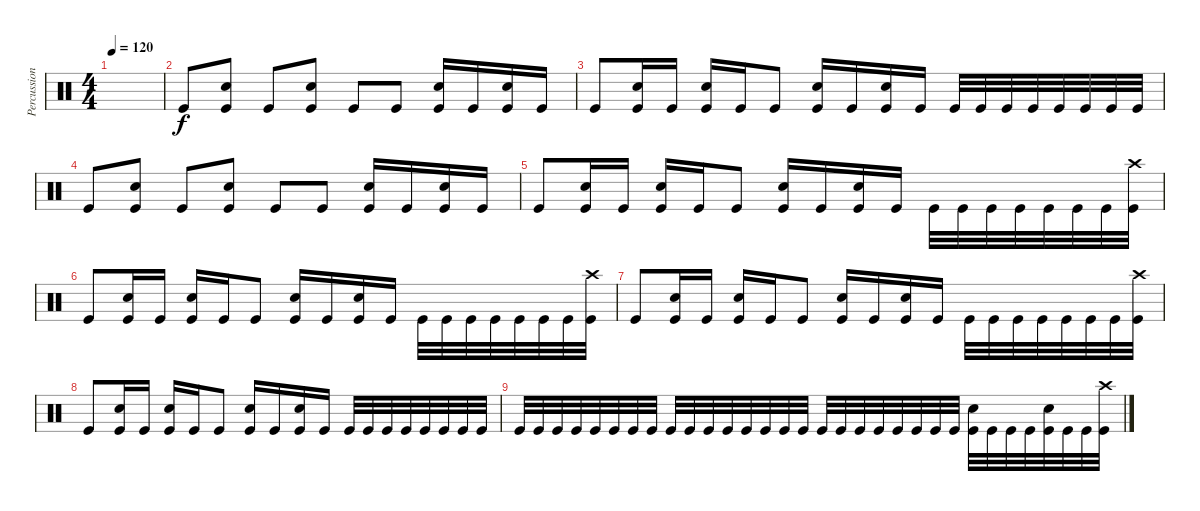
\track ("Percussion" "Percussion") {instrument percussion}
\staff {score}
\articulation defaults
\ts (4 4)
\tempo 120
\clef neutral
\ks c
|
"Kick (hit)".8 ("Snare (hit) 2" "Kick (hit)").8 "Kick (hit)".8 ("Snare (hit) 2" "Kick (hit)").8 "Kick (hit)".8 "Kick (hit)".8 ("Snare (hit) 2" "Kick (hit)").16 "Kick (hit)".16 ("Snare (hit) 2" "Kick (hit)").16 "Kick (hit)".16 |
"Kick (hit)".8 ("Snare (hit) 2" "Kick (hit)").16 "Kick (hit)".16 ("Snare (hit) 2" "Kick (hit)").16 "Kick (hit)".16 "Kick (hit)".8 ("Snare (hit) 2" "Kick (hit)").16 "Kick (hit)".16 ("Snare (hit) 2" "Kick (hit)").16 "Kick (hit)".16 "Kick (hit)".32 "Kick (hit)".32 "Kick (hit)".32 "Kick (hit)".32 "Kick (hit)".32 "Kick (hit)".32 "Kick (hit)".32 "Kick (hit)".32 |
"Kick (hit)".8 ("Snare (hit) 2" "Kick (hit)").8 "Kick (hit)".8 ("Snare (hit) 2" "Kick (hit)").8 "Kick (hit)".8 "Kick (hit)".8 ("Snare (hit) 2" "Kick (hit)").16 "Kick (hit)".16 ("Snare (hit) 2" "Kick (hit)").16 "Kick (hit)".16 |
"Kick (hit)".8 ("Snare (hit) 2" "Kick (hit)").16 "Kick (hit)".16 ("Snare (hit) 2" "Kick (hit)").16 "Kick (hit)".16 "Kick (hit)".8 ("Snare (hit) 2" "Kick (hit)").16 "Kick (hit)".16 ("Snare (hit) 2" "Kick (hit)").16 "Kick (hit)".16 "Kick (hit)".32 "Kick (hit)".32 "Kick (hit)".32 "Kick (hit)".32 "Kick (hit)".32 "Kick (hit)".32 "Kick (hit)".32 ("Crash high (hit)" "Kick (hit)").32 |
"Kick (hit)".8 ("Snare (hit) 2" "Kick (hit)").16 "Kick (hit)".16 ("Snare (hit) 2" "Kick (hit)").16 "Kick (hit)".16 "Kick (hit)".8 ("Snare (hit) 2" "Kick (hit)").16 "Kick (hit)".16 ("Snare (hit) 2" "Kick (hit)").16 "Kick (hit)".16 "Kick (hit)".32 "Kick (hit)".32 "Kick (hit)".32 "Kick (hit)".32 "Kick (hit)".32 "Kick (hit)".32 "Kick (hit)".32 ("Crash high (hit)" "Kick (hit)").32 |
"Kick (hit)".8 ("Snare (hit) 2" "Kick (hit)").16 "Kick (hit)".16 ("Snare (hit) 2" "Kick (hit)").16 "Kick (hit)".16 "Kick (hit)".8 ("Snare (hit) 2" "Kick (hit)").16 "Kick (hit)".16 ("Snare (hit) 2" "Kick (hit)").16 "Kick (hit)".16 "Kick (hit)".32 "Kick (hit)".32 "Kick (hit)".32 "Kick (hit)".32 "Kick (hit)".32 "Kick (hit)".32 "Kick (hit)".32 ("Crash high (hit)" "Kick (hit)").32 |
"Kick (hit)".8 ("Snare (hit) 2" "Kick (hit)").16 "Kick (hit)".16 ("Snare (hit) 2" "Kick (hit)").16 "Kick (hit)".16 "Kick (hit)".8 ("Snare (hit) 2" "Kick (hit)").16 "Kick (hit)".16 ("Snare (hit) 2" "Kick (hit)").16 "Kick (hit)".16 "Kick (hit)".32 "Kick (hit)".32 "Kick (hit)".32 "Kick (hit)".32 "Kick (hit)".32 "Kick (hit)".32 "Kick (hit)".32 "Kick (hit)".32 |
"Kick (hit)".32 "Kick (hit)".32 "Kick (hit)".32 "Kick (hit)".32 "Kick (hit)".32 "Kick (hit)".32 "Kick (hit)".32 "Kick (hit)".32 "Kick (hit)".32 "Kick (hit)".32 "Kick (hit)".32 "Kick (hit)".32 "Kick (hit)".32 "Kick (hit)".32 "Kick (hit)".32 "Kick (hit)".32 "Kick (hit)".32 "Kick (hit)".32 "Kick (hit)".32 "Kick (hit)".32 "Kick (hit)".32 "Kick (hit)".32 "Kick (hit)".32 "Kick (hit)".32 ("Snare (hit) 2" "Kick (hit)").32 "Kick (hit)".32 "Kick (hit)".32 "Kick (hit)".32 ("Snare (hit) 2" "Kick (hit)").32 "Kick (hit)".32 "Kick (hit)".32 ("Crash high (hit)" "Kick (hit)").32
